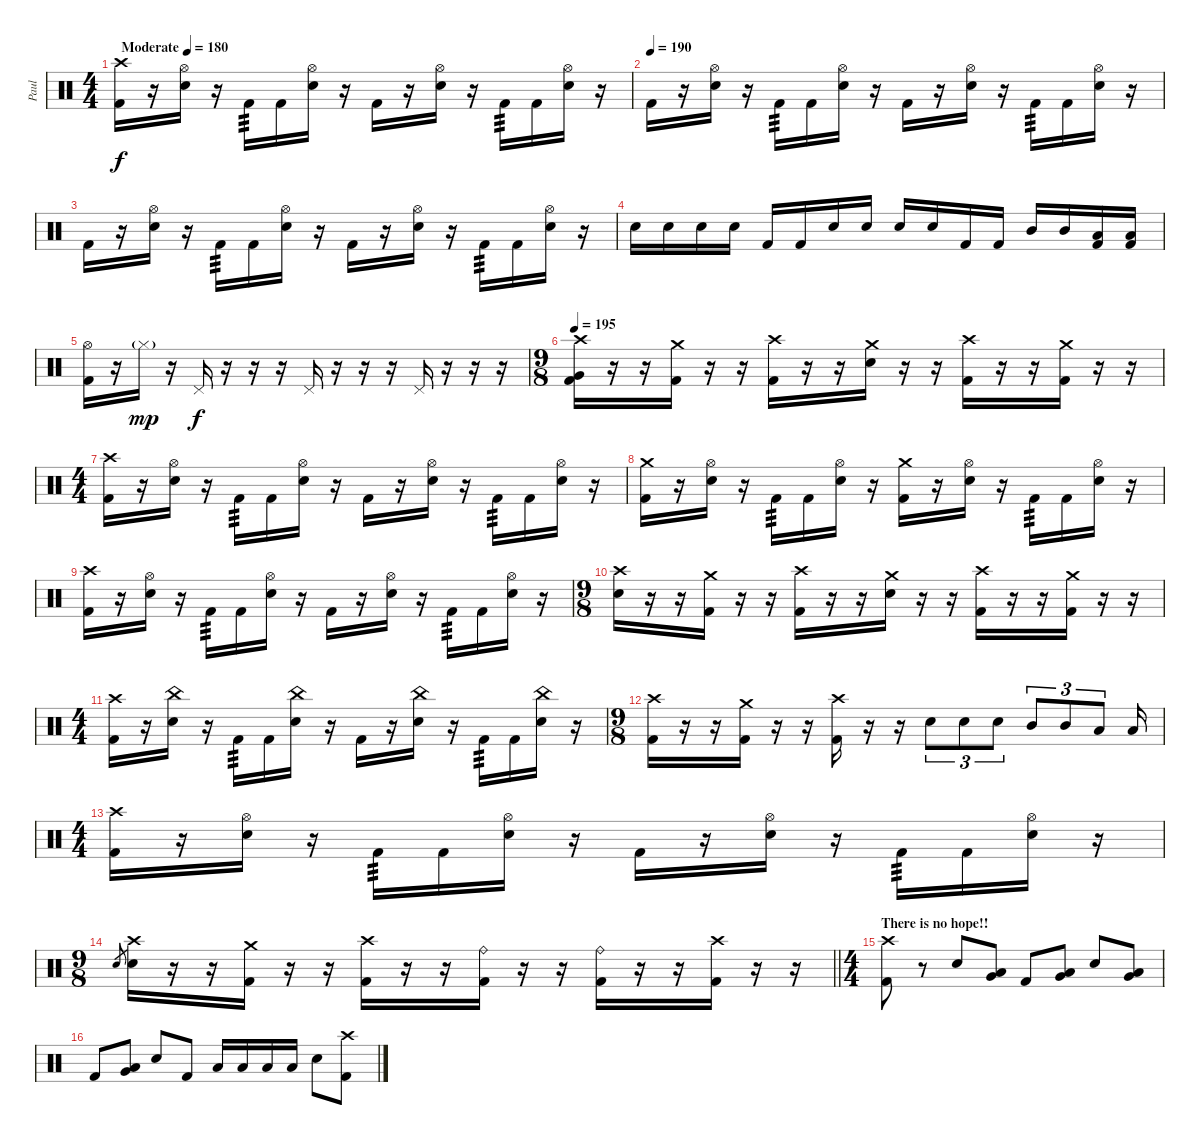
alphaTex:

\track ("Paul " "Paul ") {instrument percussion}
\staff {score}
\articulation defaults
\ts (4 4)
\tempo (180 "Moderate")
\clef neutral
\ks c
("Kick (hit) 2" "Crash high (hit)").16{dy f} r.16 ("Electric Snare (hit)" "Hi-Hat (open)").16 r.16 "Kick (hit) 2".16{tp 3} "Kick (hit) 2".16 ("Electric Snare (hit)" "Hi-Hat (open)").16 r.16 "Kick (hit) 2".16 r.16 ("Electric Snare (hit)" "Hi-Hat (open)").16 r.16 "Kick (hit) 2".16{tp 3} "Kick (hit) 2".16 ("Electric Snare (hit)" "Hi-Hat (open)").16 r.16 |
\tempo (190)
"Kick (hit) 2".16 r.16 ("Electric Snare (hit)" "Hi-Hat (open)").16 r.16 "Kick (hit) 2".16{tp 3} "Kick (hit) 2".16 ("Electric Snare (hit)" "Hi-Hat (open)").16 r.16 "Kick (hit) 2".16 r.16 ("Electric Snare (hit)" "Hi-Hat (open)").16 r.16 "Kick (hit) 2".16{tp 3} "Kick (hit) 2".16 ("Electric Snare (hit)" "Hi-Hat (open)").16 r.16 |
"Kick (hit) 2".16 r.16 ("Electric Snare (hit)" "Hi-Hat (open)").16 r.16 "Kick (hit) 2".16{tp 3} "Kick (hit) 2".16 ("Electric Snare (hit)" "Hi-Hat (open)").16 r.16 "Kick (hit) 2".16 r.16 ("Electric Snare (hit)" "Hi-Hat (open)").16 r.16 "Kick (hit) 2".16{tp 3} "Kick (hit) 2".16 ("Electric Snare (hit)" "Hi-Hat (open)").16 r.16 |
"Electric Snare (hit)".16 "Electric Snare (hit)".16 "Electric Snare (hit)".16 "Electric Snare (hit)".16 "Kick (hit) 2".16 "Kick (hit) 2".16 "Electric Snare (hit)".16 "Electric Snare (hit)".16 "Electric Snare (hit)".16 "Electric Snare (hit)".16 "Kick (hit) 2".16 "Kick (hit) 2".16 "Mid Tom (hit)".16 "Mid Tom (hit)".16 ("Low Tom (hit)" "Kick (hit) 2").16 ("Low Tom (hit)" "Kick (hit) 2").16 |
("Kick (hit) 2" "Hi-Hat (open)").16 r.16 "Hi-Hat (closed)"{g}.16{dy mp volume 3} r.16 "Pedal Hi-Hat (hit)".16{dy f volume 16} r.16 r.16 r.16 "Pedal Hi-Hat (hit)".16 r.16 r.16 r.16 "Pedal Hi-Hat (hit)".16 r.16 r.16 r.16 |
\ts (9 8)
\tempo 195
("Crash high (hit)" "Kick (hit) 2" "Very Low Tom (hit)").16 r.16 r.16 ("Crash medium (hit)" "Kick (hit) 2").16 r.16 r.16 ("Crash high (hit)" "Kick (hit) 2").16 r.16 r.16 ("Crash medium (hit)" "Electric Snare (hit)").16 r.16 r.16 ("Crash high (hit)" "Kick (hit) 2").16 r.16 r.16 ("Crash medium (hit)" "Kick (hit) 2").16 r.16 r.16 |
\ts (4 4)
("Kick (hit) 2" "Crash high (hit)").16 r.16 ("Electric Snare (hit)" "Hi-Hat (open)").16 r.16 "Kick (hit) 2".16{tp 3} "Kick (hit) 2".16 ("Electric Snare (hit)" "Hi-Hat (open)").16 r.16 "Kick (hit) 2".16 r.16 ("Electric Snare (hit)" "Hi-Hat (open)").16 r.16 "Kick (hit) 2".16{tp 3} "Kick (hit) 2".16 ("Electric Snare (hit)" "Hi-Hat (open)").16 r.16 |
("Kick (hit) 2" "Crash medium (hit)").16 r.16 ("Electric Snare (hit)" "Hi-Hat (open)").16 r.16 "Kick (hit) 2".16{tp 3} "Kick (hit) 2".16 ("Electric Snare (hit)" "Hi-Hat (open)").16 r.16 ("Kick (hit) 2" "Crash medium (hit)").16 r.16 ("Electric Snare (hit)" "Hi-Hat (open)").16 r.16 "Kick (hit) 2".16{tp 3} "Kick (hit) 2".16 ("Electric Snare (hit)" "Hi-Hat (open)").16 r.16 |
("Kick (hit) 2" "Crash high (hit)").16 r.16 ("Electric Snare (hit)" "Hi-Hat (open)").16 r.16 "Kick (hit) 2".16{tp 3} "Kick (hit) 2".16 ("Electric Snare (hit)" "Hi-Hat (open)").16 r.16 "Kick (hit) 2".16 r.16 ("Electric Snare (hit)" "Hi-Hat (open)").16 r.16 "Kick (hit) 2".16{tp 3} "Kick (hit) 2".16 ("Electric Snare (hit)" "Hi-Hat (open)").16 r.16 |
\ts (9 8)
("Crash high (hit)" "Electric Snare (hit)").16 r.16 r.16 ("Crash medium (hit)" "Kick (hit) 2").16 r.16 r.16 ("Crash high (hit)" "Kick (hit) 2").16 r.16 r.16 ("Crash medium (hit)" "Electric Snare (hit)").16 r.16 r.16 ("Crash high (hit)" "Kick (hit) 2").16 r.16 r.16 ("Crash medium (hit)" "Kick (hit) 2").16 r.16 r.16 |
\ts (4 4)
("Kick (hit) 2" "Crash high (hit)").16 r.16 ("Electric Snare (hit)" "China (hit)").16 r.16 "Kick (hit) 2".16{tp 3} "Kick (hit) 2".16 ("Electric Snare (hit)" "China (hit)").16 r.16 "Kick (hit) 2".16 r.16 ("Electric Snare (hit)" "China (hit)").16 r.16 "Kick (hit) 2".16{tp 3} "Kick (hit) 2".16 ("Electric Snare (hit)" "China (hit)").16 r.16 |
\ts (9 8)
("Crash high (hit)" "Kick (hit) 2").16 r.16 r.16 ("Crash medium (hit)" "Kick (hit) 2").16 r.16 r.16 ("Crash high (hit)" "Kick (hit) 2").16 r.16 r.16 "Electric Snare (hit)".8{tu (3 2)} "Electric Snare (hit)".8{tu (3 2)} "Electric Snare (hit)".8{tu (3 2)} "Mid Tom (hit)".8{tu (3 2)} "Mid Tom (hit)".8{tu (3 2)} "Low Tom (hit)".8{tu (3 2)} "Low Tom (hit)".16 |
\ts (4 4)
("Kick (hit) 2" "Crash high (hit)").16 r.16 ("Electric Snare (hit)" "Hi-Hat (open)").16 r.16 "Kick (hit) 2".16{tp 3} "Kick (hit) 2".16 ("Electric Snare (hit)" "Hi-Hat (open)").16 r.16 "Kick (hit) 2".16 r.16 ("Electric Snare (hit)" "Hi-Hat (open)").16 r.16 "Kick (hit) 2".16{tp 3} "Kick (hit) 2".16 ("Electric Snare (hit)" "Hi-Hat (open)").16 r.16 |
\ts (9 8)
\barLineRight lightlight "Electric Snare (hit)".8{gr}
("Crash high (hit)" "Electric Snare (hit)").16 r.16 r.16 ("Crash medium (hit)" "Kick (hit) 2").16 r.16 r.16 ("Crash high (hit)" "Kick (hit) 2").16 r.16 r.16 ("Ride (bell)" "Kick (hit) 2").16 r.16 r.16 ("Ride (bell)" "Kick (hit) 2").16 r.16 r.16 ("Crash high (hit)" "Kick (hit) 2").16 r.16 r.16 |
\ts (4 4)
\section ("" "There is no hope!!")
("Crash high (hit)" "Kick (hit) 2").8 r.8 "Electric Snare (hit)".8 ("Very Low Tom (hit)" "Low Tom (hit)").8 "Kick (hit) 2".8 ("Very Low Tom (hit)" "Low Floor Tom (hit)").8 "Electric Snare (hit)".8 ("Low Tom (hit)" "Very Low Tom (hit)").8 |
"Kick (hit) 2".8 ("Very Low Tom (hit)" "Low Floor Tom (hit)").8 "Electric Snare (hit)".8 "Kick (hit) 2".8 "Low Tom (hit)".16 "Low Tom (hit)".16 "Low Tom (hit)".16 "Low Tom (hit)".16 "Electric Snare (hit)".8 ("Crash high (hit)" "Kick (hit) 2").8
